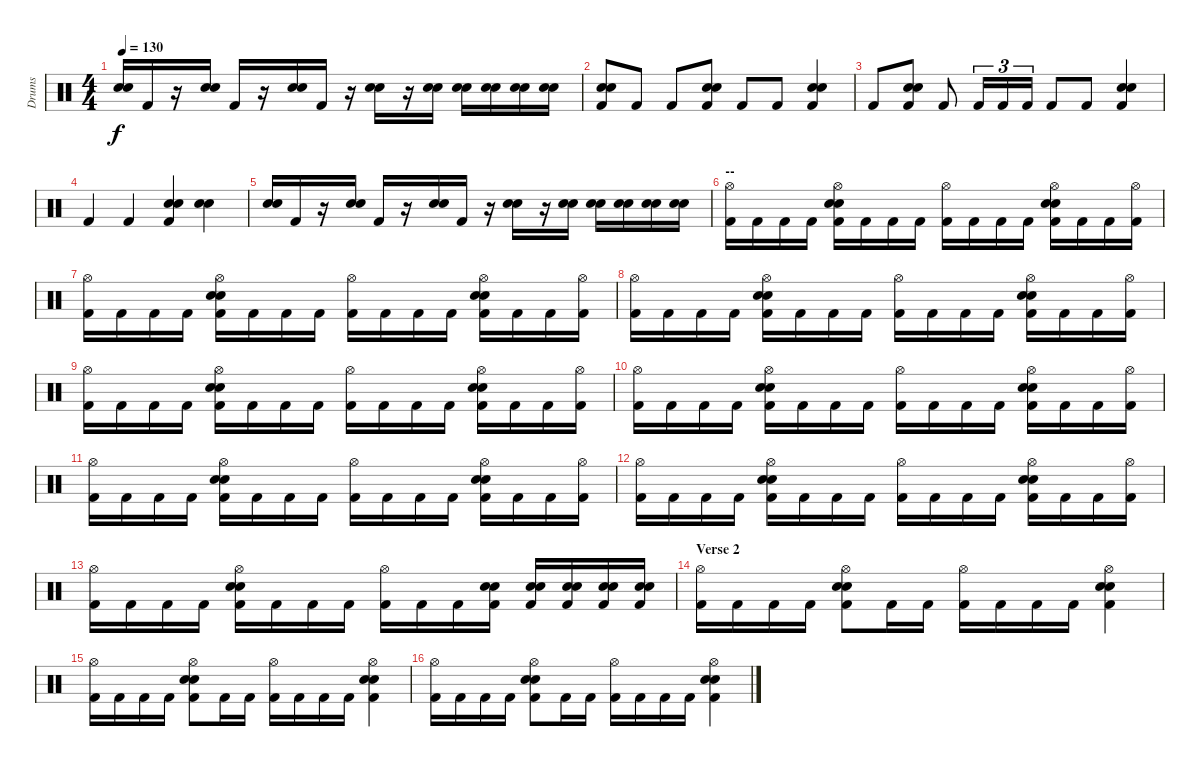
\track ("Drums" "Drums") {instrument percussion}
\staff {score}
\articulation defaults
\ts (4 4)
\tempo 130
\clef neutral
\ks c
("Snare (hit) 2" "Electric Snare (hit)").16{dy f} "Kick (hit) 2".16 r.16 ("Snare (hit) 2" "Electric Snare (hit)").16 "Kick (hit) 2".16 r.16 ("Snare (hit) 2" "Electric Snare (hit)").16 "Kick (hit) 2".16 r.16 ("Snare (hit) 2" "Electric Snare (hit)").16 r.16 ("Snare (hit) 2" "Electric Snare (hit)").16 ("Snare (hit) 2" "Electric Snare (hit)").16 ("Snare (hit) 2" "Electric Snare (hit)").16 ("Snare (hit) 2" "Electric Snare (hit)").16 ("Snare (hit) 2" "Electric Snare (hit)").16 |
("Snare (hit) 2" "Electric Snare (hit)" "Kick (hit) 2").8 "Kick (hit) 2".8 "Kick (hit) 2".8 ("Snare (hit) 2" "Electric Snare (hit)" "Kick (hit) 2").8 "Kick (hit) 2".8 "Kick (hit) 2".8 ("Snare (hit) 2" "Electric Snare (hit)" "Kick (hit) 2").4 |
"Kick (hit) 2".8 ("Snare (hit) 2" "Electric Snare (hit)" "Kick (hit) 2").8 "Kick (hit) 2".8 "Kick (hit) 2".16{tu (3 2)} "Kick (hit) 2".16{tu (3 2)} "Kick (hit) 2".16{tu (3 2)} "Kick (hit) 2".8 "Kick (hit) 2".8 ("Snare (hit) 2" "Electric Snare (hit)" "Kick (hit) 2").4 |
"Kick (hit) 2".4 "Kick (hit) 2".4 ("Snare (hit) 2" "Electric Snare (hit)" "Kick (hit) 2").4 ("Snare (hit) 2" "Electric Snare (hit)").4 |
("Snare (hit) 2" "Electric Snare (hit)").16 "Kick (hit) 2".16 r.16 ("Snare (hit) 2" "Electric Snare (hit)").16 "Kick (hit) 2".16 r.16 ("Snare (hit) 2" "Electric Snare (hit)").16 "Kick (hit) 2".16 r.16 ("Snare (hit) 2" "Electric Snare (hit)").16 r.16 ("Snare (hit) 2" "Electric Snare (hit)").16 ("Snare (hit) 2" "Electric Snare (hit)").16 ("Snare (hit) 2" "Electric Snare (hit)").16 ("Snare (hit) 2" "Electric Snare (hit)").16 ("Snare (hit) 2" "Electric Snare (hit)").16 |
\section ("" "--")
("Hi-Hat (open)" "Kick (hit) 2").16 "Kick (hit) 2".16 "Kick (hit) 2".16 "Kick (hit) 2".16 ("Hi-Hat (open)" "Snare (hit) 2" "Electric Snare (hit)" "Kick (hit) 2").16 "Kick (hit) 2".16 "Kick (hit) 2".16 "Kick (hit) 2".16 ("Hi-Hat (open)" "Kick (hit) 2").16 "Kick (hit) 2".16 "Kick (hit) 2".16 "Kick (hit) 2".16 ("Hi-Hat (open)" "Snare (hit) 2" "Electric Snare (hit)" "Kick (hit) 2").16 "Kick (hit) 2".16 "Kick (hit) 2".16 ("Hi-Hat (open)" "Kick (hit) 2").16 |
("Hi-Hat (open)" "Kick (hit) 2").16 "Kick (hit) 2".16 "Kick (hit) 2".16 "Kick (hit) 2".16 ("Hi-Hat (open)" "Snare (hit) 2" "Electric Snare (hit)" "Kick (hit) 2").16 "Kick (hit) 2".16 "Kick (hit) 2".16 "Kick (hit) 2".16 ("Hi-Hat (open)" "Kick (hit) 2").16 "Kick (hit) 2".16 "Kick (hit) 2".16 "Kick (hit) 2".16 ("Hi-Hat (open)" "Snare (hit) 2" "Electric Snare (hit)" "Kick (hit) 2").16 "Kick (hit) 2".16 "Kick (hit) 2".16 ("Hi-Hat (open)" "Kick (hit) 2").16 |
("Hi-Hat (open)" "Kick (hit) 2").16 "Kick (hit) 2".16 "Kick (hit) 2".16 "Kick (hit) 2".16 ("Hi-Hat (open)" "Snare (hit) 2" "Electric Snare (hit)" "Kick (hit) 2").16 "Kick (hit) 2".16 "Kick (hit) 2".16 "Kick (hit) 2".16 ("Hi-Hat (open)" "Kick (hit) 2").16 "Kick (hit) 2".16 "Kick (hit) 2".16 "Kick (hit) 2".16 ("Hi-Hat (open)" "Snare (hit) 2" "Electric Snare (hit)" "Kick (hit) 2").16 "Kick (hit) 2".16 "Kick (hit) 2".16 ("Hi-Hat (open)" "Kick (hit) 2").16 |
("Hi-Hat (open)" "Kick (hit) 2").16 "Kick (hit) 2".16 "Kick (hit) 2".16 "Kick (hit) 2".16 ("Hi-Hat (open)" "Snare (hit) 2" "Electric Snare (hit)" "Kick (hit) 2").16 "Kick (hit) 2".16 "Kick (hit) 2".16 "Kick (hit) 2".16 ("Hi-Hat (open)" "Kick (hit) 2").16 "Kick (hit) 2".16 "Kick (hit) 2".16 "Kick (hit) 2".16 ("Hi-Hat (open)" "Snare (hit) 2" "Electric Snare (hit)" "Kick (hit) 2").16 "Kick (hit) 2".16 "Kick (hit) 2".16 ("Hi-Hat (open)" "Kick (hit) 2").16 |
("Hi-Hat (open)" "Kick (hit) 2").16 "Kick (hit) 2".16 "Kick (hit) 2".16 "Kick (hit) 2".16 ("Hi-Hat (open)" "Snare (hit) 2" "Electric Snare (hit)" "Kick (hit) 2").16 "Kick (hit) 2".16 "Kick (hit) 2".16 "Kick (hit) 2".16 ("Hi-Hat (open)" "Kick (hit) 2").16 "Kick (hit) 2".16 "Kick (hit) 2".16 "Kick (hit) 2".16 ("Hi-Hat (open)" "Snare (hit) 2" "Electric Snare (hit)" "Kick (hit) 2").16 "Kick (hit) 2".16 "Kick (hit) 2".16 ("Hi-Hat (open)" "Kick (hit) 2").16 |
("Hi-Hat (open)" "Kick (hit) 2").16 "Kick (hit) 2".16 "Kick (hit) 2".16 "Kick (hit) 2".16 ("Hi-Hat (open)" "Snare (hit) 2" "Electric Snare (hit)" "Kick (hit) 2").16 "Kick (hit) 2".16 "Kick (hit) 2".16 "Kick (hit) 2".16 ("Hi-Hat (open)" "Kick (hit) 2").16 "Kick (hit) 2".16 "Kick (hit) 2".16 "Kick (hit) 2".16 ("Hi-Hat (open)" "Snare (hit) 2" "Electric Snare (hit)" "Kick (hit) 2").16 "Kick (hit) 2".16 "Kick (hit) 2".16 ("Hi-Hat (open)" "Kick (hit) 2").16 |
("Hi-Hat (open)" "Kick (hit) 2").16 "Kick (hit) 2".16 "Kick (hit) 2".16 "Kick (hit) 2".16 ("Hi-Hat (open)" "Snare (hit) 2" "Electric Snare (hit)" "Kick (hit) 2").16 "Kick (hit) 2".16 "Kick (hit) 2".16 "Kick (hit) 2".16 ("Hi-Hat (open)" "Kick (hit) 2").16 "Kick (hit) 2".16 "Kick (hit) 2".16 "Kick (hit) 2".16 ("Hi-Hat (open)" "Snare (hit) 2" "Electric Snare (hit)" "Kick (hit) 2").16 "Kick (hit) 2".16 "Kick (hit) 2".16 ("Hi-Hat (open)" "Kick (hit) 2").16 |
("Hi-Hat (open)" "Kick (hit) 2").16 "Kick (hit) 2".16 "Kick (hit) 2".16 "Kick (hit) 2".16 ("Hi-Hat (open)" "Snare (hit) 2" "Electric Snare (hit)" "Kick (hit) 2").16 "Kick (hit) 2".16 "Kick (hit) 2".16 "Kick (hit) 2".16 ("Hi-Hat (open)" "Kick (hit) 2").16 "Kick (hit) 2".16 "Kick (hit) 2".16 ("Snare (hit) 2" "Electric Snare (hit)" "Kick (hit) 2").16 ("Snare (hit) 2" "Electric Snare (hit)" "Kick (hit) 2").16 ("Snare (hit) 2" "Electric Snare (hit)" "Kick (hit) 2").16 ("Snare (hit) 2" "Electric Snare (hit)" "Kick (hit) 2").16 ("Snare (hit) 2" "Electric Snare (hit)" "Kick (hit) 2").16 |
\section ("" "Verse 2")
("Hi-Hat (open)" "Kick (hit) 2").16 "Kick (hit) 2".16 "Kick (hit) 2".16 "Kick (hit) 2".16 ("Hi-Hat (open)" "Snare (hit) 2" "Electric Snare (hit)" "Kick (hit) 2").8 "Kick (hit) 2".16 "Kick (hit) 2".16 ("Hi-Hat (open)" "Kick (hit) 2").16 "Kick (hit) 2".16 "Kick (hit) 2".16 "Kick (hit) 2".16 ("Hi-Hat (open)" "Snare (hit) 2" "Electric Snare (hit)" "Kick (hit) 2").4 |
("Hi-Hat (open)" "Kick (hit) 2").16 "Kick (hit) 2".16 "Kick (hit) 2".16 "Kick (hit) 2".16 ("Hi-Hat (open)" "Snare (hit) 2" "Electric Snare (hit)" "Kick (hit) 2").8 "Kick (hit) 2".16 "Kick (hit) 2".16 ("Hi-Hat (open)" "Kick (hit) 2").16 "Kick (hit) 2".16 "Kick (hit) 2".16 "Kick (hit) 2".16 ("Hi-Hat (open)" "Snare (hit) 2" "Electric Snare (hit)" "Kick (hit) 2").4 |
("Hi-Hat (open)" "Kick (hit) 2").16 "Kick (hit) 2".16 "Kick (hit) 2".16 "Kick (hit) 2".16 ("Hi-Hat (open)" "Snare (hit) 2" "Electric Snare (hit)" "Kick (hit) 2").8 "Kick (hit) 2".16 "Kick (hit) 2".16 ("Hi-Hat (open)" "Kick (hit) 2").16 "Kick (hit) 2".16 "Kick (hit) 2".16 "Kick (hit) 2".16 ("Hi-Hat (open)" "Snare (hit) 2" "Electric Snare (hit)" "Kick (hit) 2").4
